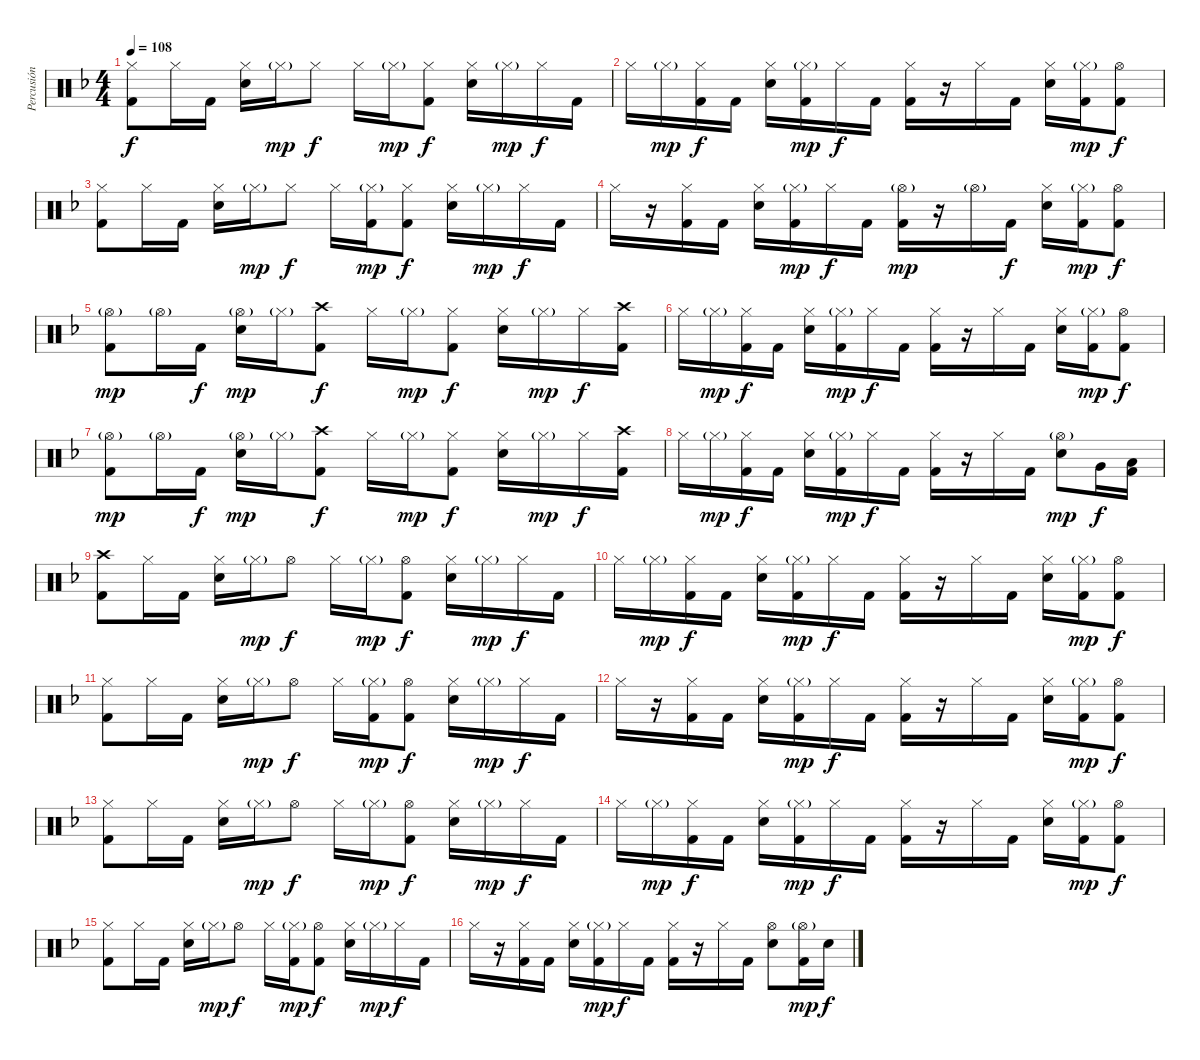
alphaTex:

\track ("Percusión" "Percusión") {instrument percussion}
\staff {score}
\articulation defaults
\ts (4 4)
\tempo 108
\clef neutral
\ks f
("Hi-Hat (closed)" "Kick (hit) 2").8{dy f} "Hi-Hat (closed)".16 "Kick (hit) 2".16 ("Hi-Hat (closed)" "Snare (hit) 2").16 "Hi-Hat (closed)"{g}.16{dy mp} "Hi-Hat (closed)".8{dy f} "Hi-Hat (closed)".16 "Hi-Hat (closed)"{g}.16{dy mp} ("Hi-Hat (closed)" "Kick (hit) 2").8{dy f} ("Hi-Hat (closed)" "Snare (hit) 2").16 "Hi-Hat (closed)"{g}.16{dy mp} "Hi-Hat (closed)".16{dy f} "Kick (hit) 2".16 |
"Hi-Hat (closed)".16 "Hi-Hat (closed)"{g}.16{dy mp} ("Hi-Hat (closed)" "Kick (hit) 2").16{dy f} "Kick (hit) 2".16 ("Hi-Hat (closed)" "Snare (hit) 2").16 ("Hi-Hat (closed)"{g} "Kick (hit) 2").16{dy mp} "Hi-Hat (closed)".16{dy f} "Kick (hit) 2".16 ("Hi-Hat (closed)" "Kick (hit) 2").16 r.16 "Hi-Hat (closed)".16 "Kick (hit) 2".16 ("Hi-Hat (closed)" "Snare (hit) 2").16 ("Hi-Hat (closed)"{g} "Kick (hit) 2").16{dy mp} ("Hi-Hat (open)" "Kick (hit) 2").8{dy f} |
("Hi-Hat (closed)" "Kick (hit) 2").8 "Hi-Hat (closed)".16 "Kick (hit) 2".16 ("Hi-Hat (closed)" "Snare (hit) 2").16 "Hi-Hat (closed)"{g}.16{dy mp} "Hi-Hat (closed)".8{dy f} "Hi-Hat (closed)".16 ("Hi-Hat (closed)"{g} "Kick (hit) 2").16{dy mp} ("Hi-Hat (closed)" "Kick (hit) 2").8{dy f} ("Hi-Hat (closed)" "Snare (hit) 2").16 "Hi-Hat (closed)"{g}.16{dy mp} "Hi-Hat (closed)".16{dy f} "Kick (hit) 2".16 |
"Hi-Hat (closed)".16 r.16 ("Hi-Hat (closed)" "Kick (hit) 2").16 "Kick (hit) 2".16 ("Hi-Hat (closed)" "Snare (hit) 2").16 ("Hi-Hat (closed)"{g} "Kick (hit) 2").16{dy mp} "Hi-Hat (closed)".16{dy f} "Kick (hit) 2".16 ("Hi-Hat (open)"{g} "Kick (hit) 2").16{dy mp} r.16 "Hi-Hat (open)"{g}.16 "Kick (hit) 2".16{dy f} ("Hi-Hat (closed)" "Snare (hit) 2").16 ("Hi-Hat (closed)"{g} "Kick (hit) 2").16{dy mp} ("Hi-Hat (open)" "Kick (hit) 2").8{dy f} |
("Hi-Hat (open)"{g} "Kick (hit) 2").8{dy mp} "Hi-Hat (open)"{g}.16 "Kick (hit) 2".16{dy f} ("Hi-Hat (open)"{g} "Snare (hit) 2").16{dy mp} "Hi-Hat (closed)"{g}.16 ("Crash high (hit)" "Kick (hit) 2").8{dy f} "Hi-Hat (closed)".16 "Hi-Hat (closed)"{g}.16{dy mp} ("Hi-Hat (closed)" "Kick (hit) 2").8{dy f} ("Hi-Hat (closed)" "Snare (hit) 2").16 "Hi-Hat (closed)"{g}.16{dy mp} "Hi-Hat (closed)".16{dy f} ("Crash high (hit)" "Kick (hit) 2").16 |
"Hi-Hat (closed)".16 "Hi-Hat (closed)"{g}.16{dy mp} ("Hi-Hat (closed)" "Kick (hit) 2").16{dy f} "Kick (hit) 2".16 ("Hi-Hat (closed)" "Snare (hit) 2").16 ("Hi-Hat (closed)"{g} "Kick (hit) 2").16{dy mp} "Hi-Hat (closed)".16{dy f} "Kick (hit) 2".16 ("Hi-Hat (closed)" "Kick (hit) 2").16 r.16 "Hi-Hat (closed)".16 "Kick (hit) 2".16 ("Hi-Hat (closed)" "Snare (hit) 2").16 ("Hi-Hat (closed)"{g} "Kick (hit) 2").16{dy mp} ("Hi-Hat (open)" "Kick (hit) 2").8{dy f} |
("Hi-Hat (open)"{g} "Kick (hit) 2").8{dy mp} "Hi-Hat (open)"{g}.16 "Kick (hit) 2".16{dy f} ("Hi-Hat (open)"{g} "Snare (hit) 2").16{dy mp} "Hi-Hat (closed)"{g}.16 ("Crash high (hit)" "Kick (hit) 2").8{dy f} "Hi-Hat (closed)".16 "Hi-Hat (closed)"{g}.16{dy mp} ("Hi-Hat (closed)" "Kick (hit) 2").8{dy f} ("Hi-Hat (closed)" "Snare (hit) 2").16 "Hi-Hat (closed)"{g}.16{dy mp} "Hi-Hat (closed)".16{dy f} ("Crash high (hit)" "Kick (hit) 2").16 |
"Hi-Hat (closed)".16 "Hi-Hat (closed)"{g}.16{dy mp} ("Hi-Hat (closed)" "Kick (hit) 2").16{dy f} "Kick (hit) 2".16 ("Hi-Hat (closed)" "Snare (hit) 2").16 ("Hi-Hat (closed)"{g} "Kick (hit) 2").16{dy mp} "Hi-Hat (closed)".16{dy f} "Kick (hit) 2".16 ("Hi-Hat (closed)" "Kick (hit) 2").16 r.16 "Hi-Hat (closed)".16 "Kick (hit) 2".16 ("Hi-Hat (open)"{g} "Snare (hit) 2").8{dy mp} "Very Low Tom (hit)".16{dy f} ("Low Floor Tom (hit)" "Kick (hit) 2").16 |
("Crash high (hit)" "Kick (hit) 2").8 "Hi-Hat (closed)".16 "Kick (hit) 2".16 ("Hi-Hat (closed)" "Snare (hit) 2").16 "Hi-Hat (closed)"{g}.16{dy mp} "Hi-Hat (open)".8{dy f} "Hi-Hat (closed)".16 "Hi-Hat (closed)"{g}.16{dy mp} ("Hi-Hat (open)" "Kick (hit) 2").8{dy f} ("Hi-Hat (closed)" "Snare (hit) 2").16 "Hi-Hat (closed)"{g}.16{dy mp} "Hi-Hat (closed)".16{dy f} "Kick (hit) 2".16 |
"Hi-Hat (closed)".16 "Hi-Hat (closed)"{g}.16{dy mp} ("Hi-Hat (closed)" "Kick (hit) 2").16{dy f} "Kick (hit) 2".16 ("Hi-Hat (closed)" "Snare (hit) 2").16 ("Hi-Hat (closed)"{g} "Kick (hit) 2").16{dy mp} "Hi-Hat (closed)".16{dy f} "Kick (hit) 2".16 ("Hi-Hat (closed)" "Kick (hit) 2").16 r.16 "Hi-Hat (closed)".16 "Kick (hit) 2".16 ("Hi-Hat (closed)" "Snare (hit) 2").16 ("Hi-Hat (closed)"{g} "Kick (hit) 2").16{dy mp} ("Hi-Hat (open)" "Kick (hit) 2").8{dy f} |
("Hi-Hat (closed)" "Kick (hit) 2").8 "Hi-Hat (closed)".16 "Kick (hit) 2".16 ("Hi-Hat (closed)" "Snare (hit) 2").16 "Hi-Hat (closed)"{g}.16{dy mp} "Hi-Hat (open)".8{dy f} "Hi-Hat (closed)".16 ("Hi-Hat (closed)"{g} "Kick (hit) 2").16{dy mp} ("Hi-Hat (open)" "Kick (hit) 2").8{dy f} ("Hi-Hat (closed)" "Snare (hit) 2").16 "Hi-Hat (closed)"{g}.16{dy mp} "Hi-Hat (closed)".16{dy f} "Kick (hit) 2".16 |
"Hi-Hat (closed)".16 r.16 ("Hi-Hat (closed)" "Kick (hit) 2").16 "Kick (hit) 2".16 ("Hi-Hat (closed)" "Snare (hit) 2").16 ("Hi-Hat (closed)"{g} "Kick (hit) 2").16{dy mp} "Hi-Hat (closed)".16{dy f} "Kick (hit) 2".16 ("Hi-Hat (closed)" "Kick (hit) 2").16 r.16 "Hi-Hat (closed)".16 "Kick (hit) 2".16 ("Hi-Hat (closed)" "Snare (hit) 2").16 ("Hi-Hat (closed)"{g} "Kick (hit) 2").16{dy mp} ("Hi-Hat (open)" "Kick (hit) 2").8{dy f} |
("Hi-Hat (closed)" "Kick (hit) 2").8 "Hi-Hat (closed)".16 "Kick (hit) 2".16 ("Hi-Hat (closed)" "Snare (hit) 2").16 "Hi-Hat (closed)"{g}.16{dy mp} "Hi-Hat (open)".8{dy f} "Hi-Hat (closed)".16 "Hi-Hat (closed)"{g}.16{dy mp} ("Hi-Hat (open)" "Kick (hit) 2").8{dy f} ("Hi-Hat (closed)" "Snare (hit) 2").16 "Hi-Hat (closed)"{g}.16{dy mp} "Hi-Hat (closed)".16{dy f} "Kick (hit) 2".16 |
"Hi-Hat (closed)".16 "Hi-Hat (closed)"{g}.16{dy mp} ("Hi-Hat (closed)" "Kick (hit) 2").16{dy f} "Kick (hit) 2".16 ("Hi-Hat (closed)" "Snare (hit) 2").16 ("Hi-Hat (closed)"{g} "Kick (hit) 2").16{dy mp} "Hi-Hat (closed)".16{dy f} "Kick (hit) 2".16 ("Hi-Hat (closed)" "Kick (hit) 2").16 r.16 "Hi-Hat (closed)".16 "Kick (hit) 2".16 ("Hi-Hat (closed)" "Snare (hit) 2").16 ("Hi-Hat (closed)"{g} "Kick (hit) 2").16{dy mp} ("Hi-Hat (open)" "Kick (hit) 2").8{dy f} |
("Hi-Hat (closed)" "Kick (hit) 2").8 "Hi-Hat (closed)".16 "Kick (hit) 2".16 ("Hi-Hat (closed)" "Snare (hit) 2").16 "Hi-Hat (closed)"{g}.16{dy mp} "Hi-Hat (open)".8{dy f} "Hi-Hat (closed)".16 ("Hi-Hat (closed)"{g} "Kick (hit) 2").16{dy mp} ("Hi-Hat (open)" "Kick (hit) 2").8{dy f} ("Hi-Hat (closed)" "Snare (hit) 2").16 "Hi-Hat (closed)"{g}.16{dy mp} "Hi-Hat (closed)".16{dy f} "Kick (hit) 2".16 |
"Hi-Hat (closed)".16 r.16 ("Hi-Hat (closed)" "Kick (hit) 2").16 "Kick (hit) 2".16 ("Hi-Hat (closed)" "Snare (hit) 2").16 ("Hi-Hat (closed)"{g} "Kick (hit) 2").16{dy mp} "Hi-Hat (closed)".16{dy f} "Kick (hit) 2".16 ("Hi-Hat (closed)" "Kick (hit) 2").16 r.16 "Hi-Hat (closed)".16 "Kick (hit) 2".16 ("Hi-Hat (open)" "Snare (hit) 2").8 ("Hi-Hat (open)"{g} "Kick (hit) 2").16{dy mp} "Snare (hit) 2".16{dy f}
